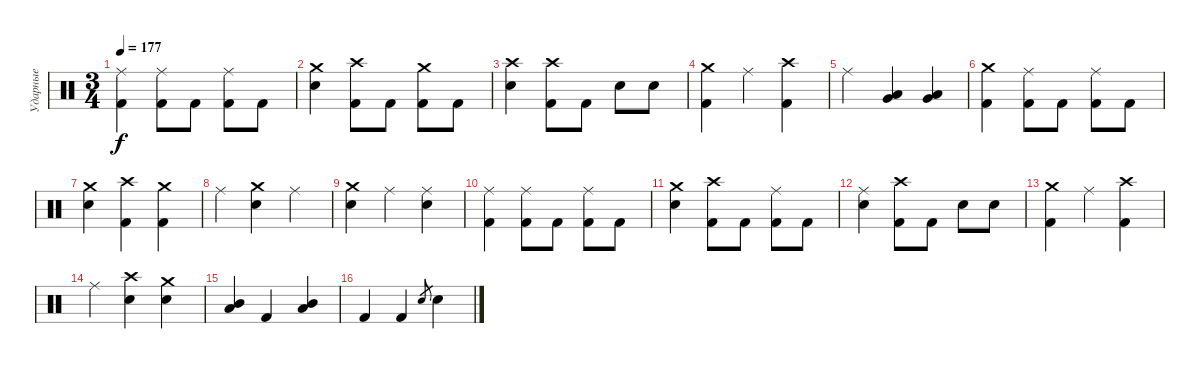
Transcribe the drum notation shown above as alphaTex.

\track ("Ударные" "Ударные") {instrument percussion}
\staff {score}
\articulation defaults
\ts (3 4)
\tempo 177
\clef neutral
\ks c
("Ride (middle)" "Kick (hit) 2").4{dy f} ("Ride (middle)" "Kick (hit) 2").8 "Kick (hit) 2".8 ("Ride (middle)" "Kick (hit) 2").8 "Kick (hit) 2".8 |
("Crash medium (hit)" "Snare (hit) 2").4 ("Crash high (hit)" "Kick (hit) 2").8 "Kick (hit) 2".8 ("Crash medium (hit)" "Kick (hit) 2").8 "Kick (hit) 2".8 |
("Crash high (hit)" "Snare (hit) 2").4 ("Crash high (hit)" "Kick (hit) 2").8 "Kick (hit) 2".8 "Snare (hit) 2".8 "Snare (hit) 2".8 |
("Crash medium (hit)" "Kick (hit) 2").4 "Ride (middle)".4 ("Crash high (hit)" "Kick (hit) 2").4 |
"Ride (middle)".4 ("Low Tom (hit)" "Very Low Tom (hit)").4 ("Low Tom (hit)" "Very Low Tom (hit)").4 |
("Crash medium (hit)" "Kick (hit) 2").4 ("Ride (middle)" "Kick (hit) 2").8 "Kick (hit) 2".8 ("Ride (middle)" "Kick (hit) 2").8 "Kick (hit) 2".8 |
("Crash medium (hit)" "Snare (hit) 2").4 ("Crash high (hit)" "Kick (hit) 2").4 ("Crash medium (hit)" "Kick (hit) 2").4 |
"Ride (middle)".4 ("Crash medium (hit)" "Snare (hit) 2").4 "Ride (middle)".4 |
("Crash medium (hit)" "Snare (hit) 2").4 "Ride (middle)".4 ("Ride (middle)" "Snare (hit) 2").4 |
("Ride (middle)" "Kick (hit) 2").4 ("Ride (middle)" "Kick (hit) 2").8 "Kick (hit) 2".8 ("Ride (middle)" "Kick (hit) 2").8 "Kick (hit) 2".8 |
("Crash medium (hit)" "Snare (hit) 2").4 ("Crash high (hit)" "Kick (hit) 2").8 "Kick (hit) 2".8 ("Ride (middle)" "Kick (hit) 2").8 "Kick (hit) 2".8 |
("Ride (middle)" "Snare (hit) 2").4 ("Crash high (hit)" "Kick (hit) 2").8 "Kick (hit) 2".8 "Snare (hit) 2".8 "Snare (hit) 2".8 |
("Crash medium (hit)" "Kick (hit) 2").4 "Ride (middle)".4 ("Crash high (hit)" "Kick (hit) 2").4 |
"Ride (middle)".4 ("Crash high (hit)" "Snare (hit) 2").4 ("Crash medium (hit)" "Snare (hit) 2").4 |
("Mid Tom (hit)" "Low Tom (hit)").4 "Kick (hit) 2".4 ("Mid Tom (hit)" "Low Tom (hit)").4 |
"Kick (hit) 2".4 "Kick (hit) 2".4 "Snare (hit) 2".8{gr} "Snare (hit) 2".4
